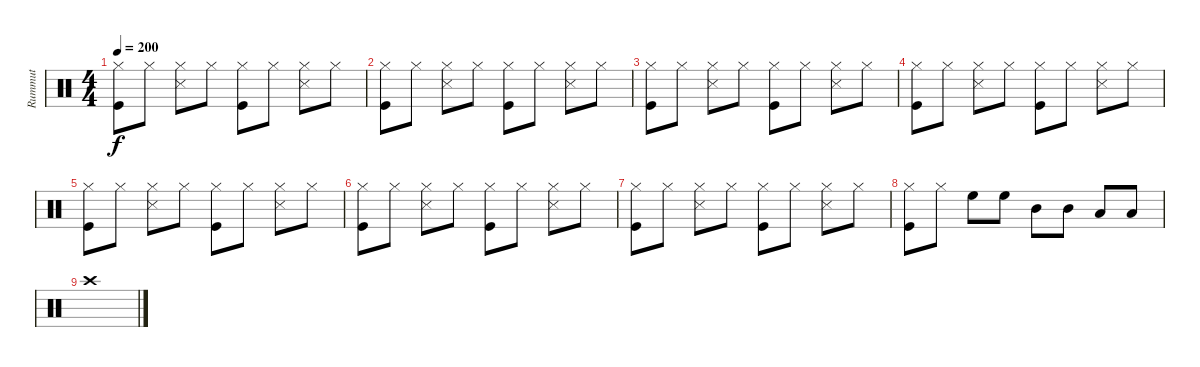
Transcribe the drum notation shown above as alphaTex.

\track ("Rummut" "Rummut") {instrument percussion}
\staff {score}
\articulation defaults
\ts (4 4)
\tempo 200
\clef neutral
\ks c
("Hi-Hat (closed)" "Kick (hit)").8{dy f} "Hi-Hat (closed)".8 ("Hi-Hat (closed)" "Snare (side stick) 3").8 "Hi-Hat (closed)".8 ("Hi-Hat (closed)" "Kick (hit)").8 "Hi-Hat (closed)".8 ("Hi-Hat (closed)" "Snare (side stick) 3").8 "Hi-Hat (closed)".8 |
("Hi-Hat (closed)" "Kick (hit)").8 "Hi-Hat (closed)".8 ("Hi-Hat (closed)" "Snare (side stick) 3").8 "Hi-Hat (closed)".8 ("Hi-Hat (closed)" "Kick (hit)").8 "Hi-Hat (closed)".8 ("Hi-Hat (closed)" "Snare (side stick) 3").8 "Hi-Hat (closed)".8 |
("Hi-Hat (closed)" "Kick (hit)").8 "Hi-Hat (closed)".8 ("Hi-Hat (closed)" "Snare (side stick) 3").8 "Hi-Hat (closed)".8 ("Hi-Hat (closed)" "Kick (hit)").8 "Hi-Hat (closed)".8 ("Hi-Hat (closed)" "Snare (side stick) 3").8 "Hi-Hat (closed)".8 |
("Hi-Hat (closed)" "Kick (hit)").8 "Hi-Hat (closed)".8 ("Hi-Hat (closed)" "Snare (side stick) 3").8 "Hi-Hat (closed)".8 ("Hi-Hat (closed)" "Kick (hit)").8 "Hi-Hat (closed)".8 ("Hi-Hat (closed)" "Snare (side stick) 3").8 "Hi-Hat (closed)".8 |
("Hi-Hat (closed)" "Kick (hit)").8 "Hi-Hat (closed)".8 ("Hi-Hat (closed)" "Snare (side stick) 3").8 "Hi-Hat (closed)".8 ("Hi-Hat (closed)" "Kick (hit)").8 "Hi-Hat (closed)".8 ("Hi-Hat (closed)" "Snare (side stick) 3").8 "Hi-Hat (closed)".8 |
("Hi-Hat (closed)" "Kick (hit)").8 "Hi-Hat (closed)".8 ("Hi-Hat (closed)" "Snare (side stick) 3").8 "Hi-Hat (closed)".8 ("Hi-Hat (closed)" "Kick (hit)").8 "Hi-Hat (closed)".8 ("Hi-Hat (closed)" "Snare (side stick) 3").8 "Hi-Hat (closed)".8 |
("Hi-Hat (closed)" "Kick (hit)").8 "Hi-Hat (closed)".8 ("Hi-Hat (closed)" "Snare (side stick) 3").8 "Hi-Hat (closed)".8 ("Hi-Hat (closed)" "Kick (hit)").8 "Hi-Hat (closed)".8 ("Hi-Hat (closed)" "Snare (side stick) 3").8 "Hi-Hat (closed)".8 |
("Hi-Hat (closed)" "Kick (hit)").8 "Hi-Hat (closed)".8 "High Floor Tom (hit)".8 "High Floor Tom (hit)".8 "Mid Tom (hit)".8 "Mid Tom (hit)".8 "Low Tom (hit)".8 "Low Tom (hit)".8 |
"Crash high (hit)".1
